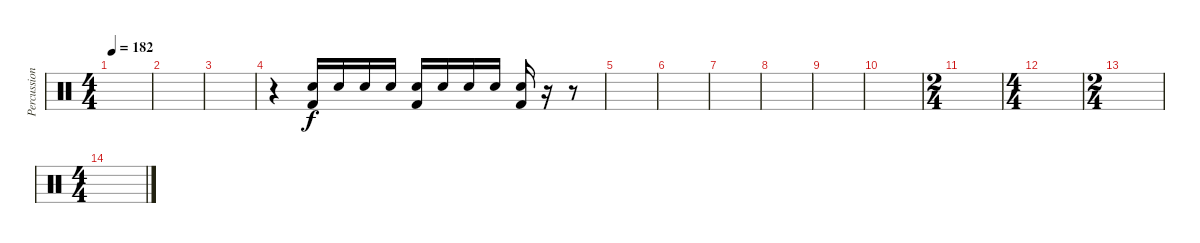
\track ("Percussion" "Percussion") {instrument percussion}
\staff {score}
\articulation defaults
\ts (4 4)
\tempo 182
\clef neutral
\ks c
|
|
|
r.4 ("Snare (hit) 2" "Kick (hit) 2").16 "Snare (hit) 2".16 "Snare (hit) 2".16 "Snare (hit) 2".16 ("Snare (hit) 2" "Kick (hit) 2").16 "Snare (hit) 2".16 "Snare (hit) 2".16 "Snare (hit) 2".16 ("Snare (hit) 2" "Kick (hit) 2").16 r.16 r.8 |
|
|
|
|
|
|
\ts (2 4)
|
\ts (4 4)
|
\ts (2 4)
|
\ts (4 4)
